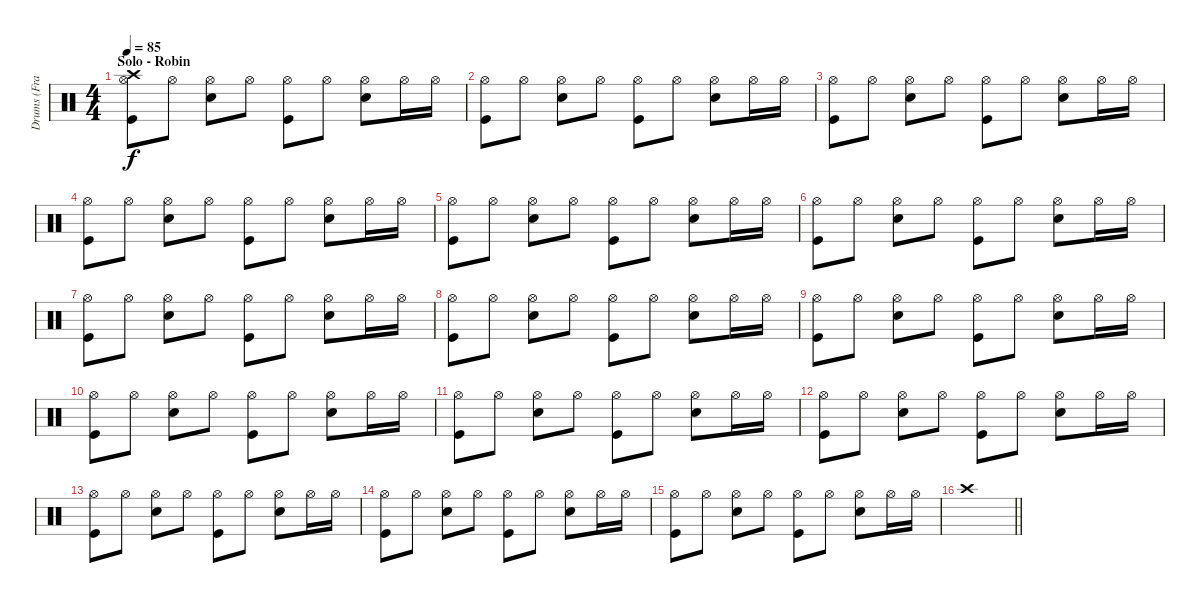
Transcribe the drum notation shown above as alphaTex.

\track ("Drums (Frank Ferrer)" "Drums (Fra") {instrument percussion}
\staff {score}
\articulation defaults
\ts (4 4)
\section ("" "Solo - Robin")
\tempo 85
\clef neutral
\ks c
("Kick (hit)" "Hi-Hat (open)" "Crash high (hit)").8{dy f} "Hi-Hat (open)".8 ("Snare (hit) 2" "Hi-Hat (open)").8 "Hi-Hat (open)".8 ("Kick (hit)" "Hi-Hat (open)").8 "Hi-Hat (open)".8 ("Snare (hit) 2" "Hi-Hat (open)").8 "Hi-Hat (open)".16 "Hi-Hat (open)".16 |
("Kick (hit)" "Hi-Hat (open)").8 "Hi-Hat (open)".8 ("Snare (hit) 2" "Hi-Hat (open)").8 "Hi-Hat (open)".8 ("Kick (hit)" "Hi-Hat (open)").8 "Hi-Hat (open)".8 ("Snare (hit) 2" "Hi-Hat (open)").8 "Hi-Hat (open)".16 "Hi-Hat (open)".16 |
("Kick (hit)" "Hi-Hat (open)").8 "Hi-Hat (open)".8 ("Snare (hit) 2" "Hi-Hat (open)").8 "Hi-Hat (open)".8 ("Kick (hit)" "Hi-Hat (open)").8 "Hi-Hat (open)".8 ("Snare (hit) 2" "Hi-Hat (open)").8 "Hi-Hat (open)".16 "Hi-Hat (open)".16 |
("Kick (hit)" "Hi-Hat (open)").8 "Hi-Hat (open)".8 ("Snare (hit) 2" "Hi-Hat (open)").8 "Hi-Hat (open)".8 ("Kick (hit)" "Hi-Hat (open)").8 "Hi-Hat (open)".8 ("Snare (hit) 2" "Hi-Hat (open)").8 "Hi-Hat (open)".16 "Hi-Hat (open)".16 |
("Kick (hit)" "Hi-Hat (open)").8 "Hi-Hat (open)".8 ("Snare (hit) 2" "Hi-Hat (open)").8 "Hi-Hat (open)".8 ("Kick (hit)" "Hi-Hat (open)").8 "Hi-Hat (open)".8 ("Snare (hit) 2" "Hi-Hat (open)").8 "Hi-Hat (open)".16 "Hi-Hat (open)".16 |
("Kick (hit)" "Hi-Hat (open)").8 "Hi-Hat (open)".8 ("Snare (hit) 2" "Hi-Hat (open)").8 "Hi-Hat (open)".8 ("Kick (hit)" "Hi-Hat (open)").8 "Hi-Hat (open)".8 ("Snare (hit) 2" "Hi-Hat (open)").8 "Hi-Hat (open)".16 "Hi-Hat (open)".16 |
("Kick (hit)" "Hi-Hat (open)").8 "Hi-Hat (open)".8 ("Snare (hit) 2" "Hi-Hat (open)").8 "Hi-Hat (open)".8 ("Kick (hit)" "Hi-Hat (open)").8 "Hi-Hat (open)".8 ("Snare (hit) 2" "Hi-Hat (open)").8 "Hi-Hat (open)".16 "Hi-Hat (open)".16 |
("Kick (hit)" "Hi-Hat (open)").8 "Hi-Hat (open)".8 ("Snare (hit) 2" "Hi-Hat (open)").8 "Hi-Hat (open)".8 ("Kick (hit)" "Hi-Hat (open)").8 "Hi-Hat (open)".8 ("Snare (hit) 2" "Hi-Hat (open)").8 "Hi-Hat (open)".16 "Hi-Hat (open)".16 |
("Kick (hit)" "Hi-Hat (open)").8 "Hi-Hat (open)".8 ("Snare (hit) 2" "Hi-Hat (open)").8 "Hi-Hat (open)".8 ("Kick (hit)" "Hi-Hat (open)").8 "Hi-Hat (open)".8 ("Snare (hit) 2" "Hi-Hat (open)").8 "Hi-Hat (open)".16 "Hi-Hat (open)".16 |
("Kick (hit)" "Hi-Hat (open)").8 "Hi-Hat (open)".8 ("Snare (hit) 2" "Hi-Hat (open)").8 "Hi-Hat (open)".8 ("Kick (hit)" "Hi-Hat (open)").8 "Hi-Hat (open)".8 ("Snare (hit) 2" "Hi-Hat (open)").8 "Hi-Hat (open)".16 "Hi-Hat (open)".16 |
("Kick (hit)" "Hi-Hat (open)").8 "Hi-Hat (open)".8 ("Snare (hit) 2" "Hi-Hat (open)").8 "Hi-Hat (open)".8 ("Kick (hit)" "Hi-Hat (open)").8 "Hi-Hat (open)".8 ("Snare (hit) 2" "Hi-Hat (open)").8 "Hi-Hat (open)".16 "Hi-Hat (open)".16 |
("Kick (hit)" "Hi-Hat (open)").8 "Hi-Hat (open)".8 ("Snare (hit) 2" "Hi-Hat (open)").8 "Hi-Hat (open)".8 ("Kick (hit)" "Hi-Hat (open)").8 "Hi-Hat (open)".8 ("Snare (hit) 2" "Hi-Hat (open)").8 "Hi-Hat (open)".16 "Hi-Hat (open)".16 |
("Kick (hit)" "Hi-Hat (open)").8 "Hi-Hat (open)".8 ("Snare (hit) 2" "Hi-Hat (open)").8 "Hi-Hat (open)".8 ("Kick (hit)" "Hi-Hat (open)").8 "Hi-Hat (open)".8 ("Snare (hit) 2" "Hi-Hat (open)").8 "Hi-Hat (open)".16 "Hi-Hat (open)".16 |
("Kick (hit)" "Hi-Hat (open)").8 "Hi-Hat (open)".8 ("Snare (hit) 2" "Hi-Hat (open)").8 "Hi-Hat (open)".8 ("Kick (hit)" "Hi-Hat (open)").8 "Hi-Hat (open)".8 ("Snare (hit) 2" "Hi-Hat (open)").8 "Hi-Hat (open)".16 "Hi-Hat (open)".16 |
("Kick (hit)" "Hi-Hat (open)").8 "Hi-Hat (open)".8 ("Snare (hit) 2" "Hi-Hat (open)").8 "Hi-Hat (open)".8 ("Kick (hit)" "Hi-Hat (open)").8 "Hi-Hat (open)".8 ("Snare (hit) 2" "Hi-Hat (open)").8 "Hi-Hat (open)".16 "Hi-Hat (open)".16 |
\barLineRight lightlight "Crash high (hit)".1
